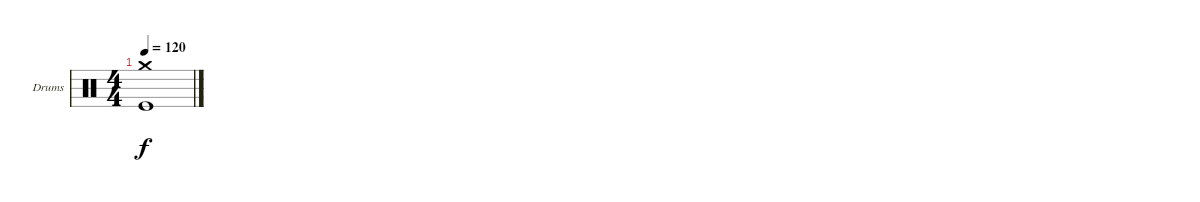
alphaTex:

\defaultSystemsLayout 4
\bracketExtendMode groupsimilarinstruments
\firstSystemTrackNameOrientation horizontal
\otherSystemsTrackNameOrientation horizontal
\track ("Stefan Schwarzmann" "Drums") {instrument percussion}
\staff {score}
\articulation defaults
\ts (4 4)
\tempo 120
\clef neutral
\ks c
("Kick (hit)" "Crash medium (hit)").1{dy f}
